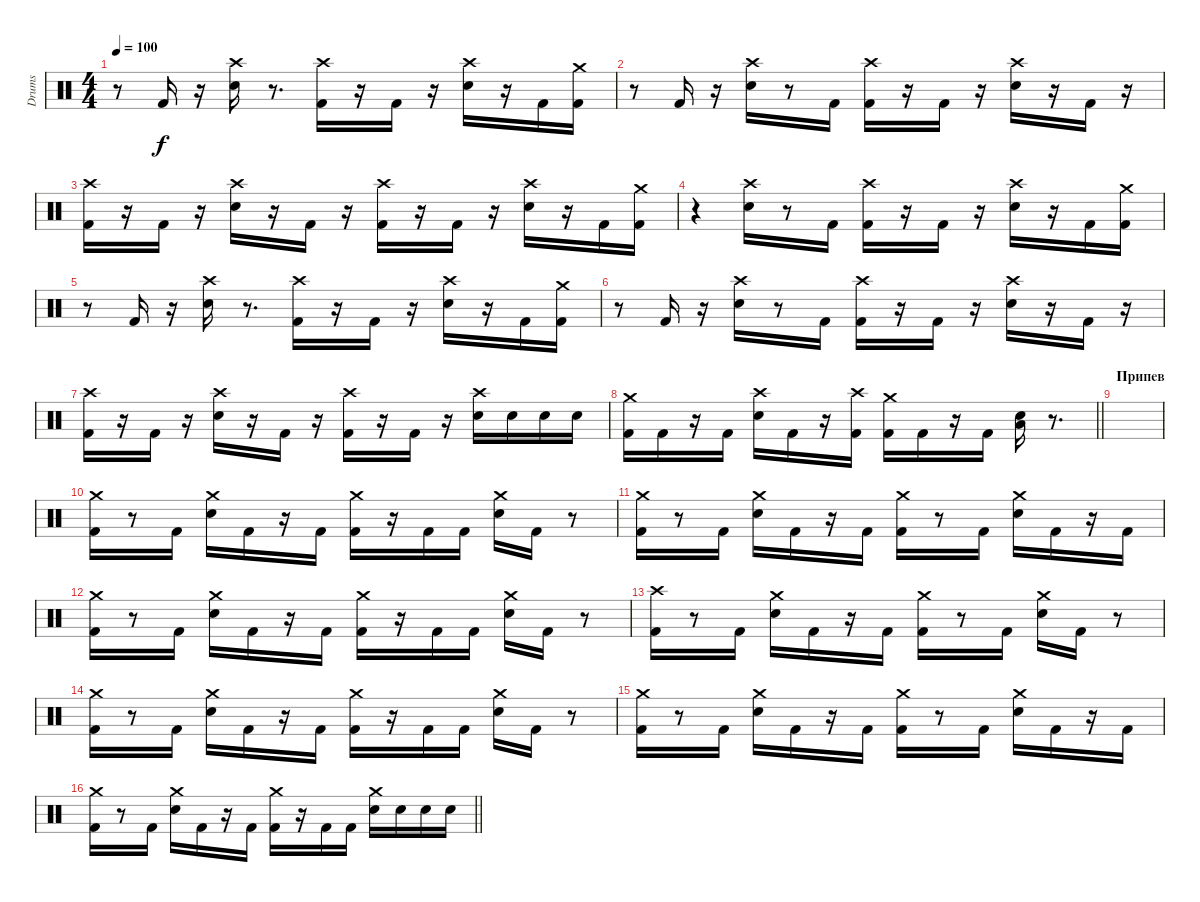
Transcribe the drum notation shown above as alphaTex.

\track ("Drums" "Drums") {instrument percussion}
\staff {score}
\articulation defaults
\ts (4 4)
\tempo 100
\clef neutral
\ks c
r.8{dy f} "Kick (hit) 2".16 r.16 ("Crash high (hit)" "Electric Snare (hit)").16 r.8{d} ("Crash high (hit)" "Kick (hit) 2").16 r.16 "Kick (hit) 2".16 r.16 ("Crash high (hit)" "Electric Snare (hit)").16 r.16 "Kick (hit) 2".16 ("Crash medium (hit)" "Kick (hit) 2").16 |
r.8 "Kick (hit) 2".16 r.16 ("Crash high (hit)" "Electric Snare (hit)").16 r.8 "Kick (hit) 2".16 ("Crash high (hit)" "Kick (hit) 2").16 r.16 "Kick (hit) 2".16 r.16 ("Crash high (hit)" "Electric Snare (hit)").16 r.16 "Kick (hit) 2".16 r.16 |
("Crash high (hit)" "Kick (hit) 2").16 r.16 "Kick (hit) 2".16 r.16 ("Crash high (hit)" "Electric Snare (hit)").16 r.16 "Kick (hit) 2".16 r.16 ("Crash high (hit)" "Kick (hit) 2").16 r.16 "Kick (hit) 2".16 r.16 ("Crash high (hit)" "Electric Snare (hit)").16 r.16 "Kick (hit) 2".16 ("Crash medium (hit)" "Kick (hit) 2").16 |
r.4 ("Crash high (hit)" "Electric Snare (hit)").16 r.8 "Kick (hit) 2".16 ("Crash high (hit)" "Kick (hit) 2").16 r.16 "Kick (hit) 2".16 r.16 ("Crash high (hit)" "Electric Snare (hit)").16 r.16 "Kick (hit) 2".16 ("Crash medium (hit)" "Kick (hit) 2").16 |
r.8 "Kick (hit) 2".16 r.16 ("Crash high (hit)" "Electric Snare (hit)").16 r.8{d} ("Crash high (hit)" "Kick (hit) 2").16 r.16 "Kick (hit) 2".16 r.16 ("Crash high (hit)" "Electric Snare (hit)").16 r.16 "Kick (hit) 2".16 ("Crash medium (hit)" "Kick (hit) 2").16 |
r.8 "Kick (hit) 2".16 r.16 ("Crash high (hit)" "Electric Snare (hit)").16 r.8 "Kick (hit) 2".16 ("Crash high (hit)" "Kick (hit) 2").16 r.16 "Kick (hit) 2".16 r.16 ("Crash high (hit)" "Electric Snare (hit)").16 r.16 "Kick (hit) 2".16 r.16 |
("Crash high (hit)" "Kick (hit) 2").16 r.16 "Kick (hit) 2".16 r.16 ("Crash high (hit)" "Electric Snare (hit)").16 r.16 "Kick (hit) 2".16 r.16 ("Crash high (hit)" "Kick (hit) 2").16 r.16 "Kick (hit) 2".16 r.16 ("Crash high (hit)" "Electric Snare (hit)").16 "Electric Snare (hit)".16 "Electric Snare (hit)".16 "Electric Snare (hit)".16 |
\barLineRight lightlight
("Crash medium (hit)" "Kick (hit) 2").16 "Kick (hit) 2".16 r.16 "Kick (hit) 2".16 ("Crash high (hit)" "Electric Snare (hit)").16 "Kick (hit) 2".16 r.16 ("Crash high (hit)" "Kick (hit) 2").16 ("Crash medium (hit)" "Kick (hit) 2").16 "Kick (hit) 2".16 r.16 "Kick (hit) 2".16 ("Electric Snare (hit)" "Low Floor Tom (hit)").16 r.8{d} |
\section ("" "Припев")
|
("Crash medium (hit)" "Kick (hit) 2").16 r.8 "Kick (hit) 2".16 ("Crash medium (hit)" "Electric Snare (hit)").16 "Kick (hit) 2".16 r.16 "Kick (hit) 2".16 ("Crash medium (hit)" "Kick (hit) 2").16 r.16 "Kick (hit) 2".16 "Kick (hit) 2".16 ("Crash medium (hit)" "Electric Snare (hit)").16 "Kick (hit) 2".16 r.8 |
("Crash medium (hit)" "Kick (hit) 2").16 r.8 "Kick (hit) 2".16 ("Crash medium (hit)" "Electric Snare (hit)").16 "Kick (hit) 2".16 r.16 "Kick (hit) 2".16 ("Crash medium (hit)" "Kick (hit) 2").16 r.8 "Kick (hit) 2".16 ("Crash medium (hit)" "Electric Snare (hit)").16 "Kick (hit) 2".16 r.16 "Kick (hit) 2".16 |
("Crash medium (hit)" "Kick (hit) 2").16 r.8 "Kick (hit) 2".16 ("Crash medium (hit)" "Electric Snare (hit)").16 "Kick (hit) 2".16 r.16 "Kick (hit) 2".16 ("Crash medium (hit)" "Kick (hit) 2").16 r.16 "Kick (hit) 2".16 "Kick (hit) 2".16 ("Crash medium (hit)" "Electric Snare (hit)").16 "Kick (hit) 2".16 r.8 |
("Crash high (hit)" "Kick (hit) 2").16 r.8 "Kick (hit) 2".16 ("Crash medium (hit)" "Electric Snare (hit)").16 "Kick (hit) 2".16 r.16 "Kick (hit) 2".16 ("Crash medium (hit)" "Kick (hit) 2").16 r.8 "Kick (hit) 2".16 ("Crash medium (hit)" "Electric Snare (hit)").16 "Kick (hit) 2".16 r.8 |
("Crash medium (hit)" "Kick (hit) 2").16 r.8 "Kick (hit) 2".16 ("Crash medium (hit)" "Electric Snare (hit)").16 "Kick (hit) 2".16 r.16 "Kick (hit) 2".16 ("Crash medium (hit)" "Kick (hit) 2").16 r.16 "Kick (hit) 2".16 "Kick (hit) 2".16 ("Crash medium (hit)" "Electric Snare (hit)").16 "Kick (hit) 2".16 r.8 |
("Crash medium (hit)" "Kick (hit) 2").16 r.8 "Kick (hit) 2".16 ("Crash medium (hit)" "Electric Snare (hit)").16 "Kick (hit) 2".16 r.16 "Kick (hit) 2".16 ("Crash medium (hit)" "Kick (hit) 2").16 r.8 "Kick (hit) 2".16 ("Crash medium (hit)" "Electric Snare (hit)").16 "Kick (hit) 2".16 r.16 "Kick (hit) 2".16 |
\barLineRight lightlight
("Crash medium (hit)" "Kick (hit) 2").16 r.8 "Kick (hit) 2".16 ("Crash medium (hit)" "Electric Snare (hit)").16 "Kick (hit) 2".16 r.16 "Kick (hit) 2".16 ("Crash medium (hit)" "Kick (hit) 2").16 r.16 "Kick (hit) 2".16 "Kick (hit) 2".16 ("Crash medium (hit)" "Electric Snare (hit)").16 "Electric Snare (hit)".16 "Electric Snare (hit)".16 "Electric Snare (hit)".16
